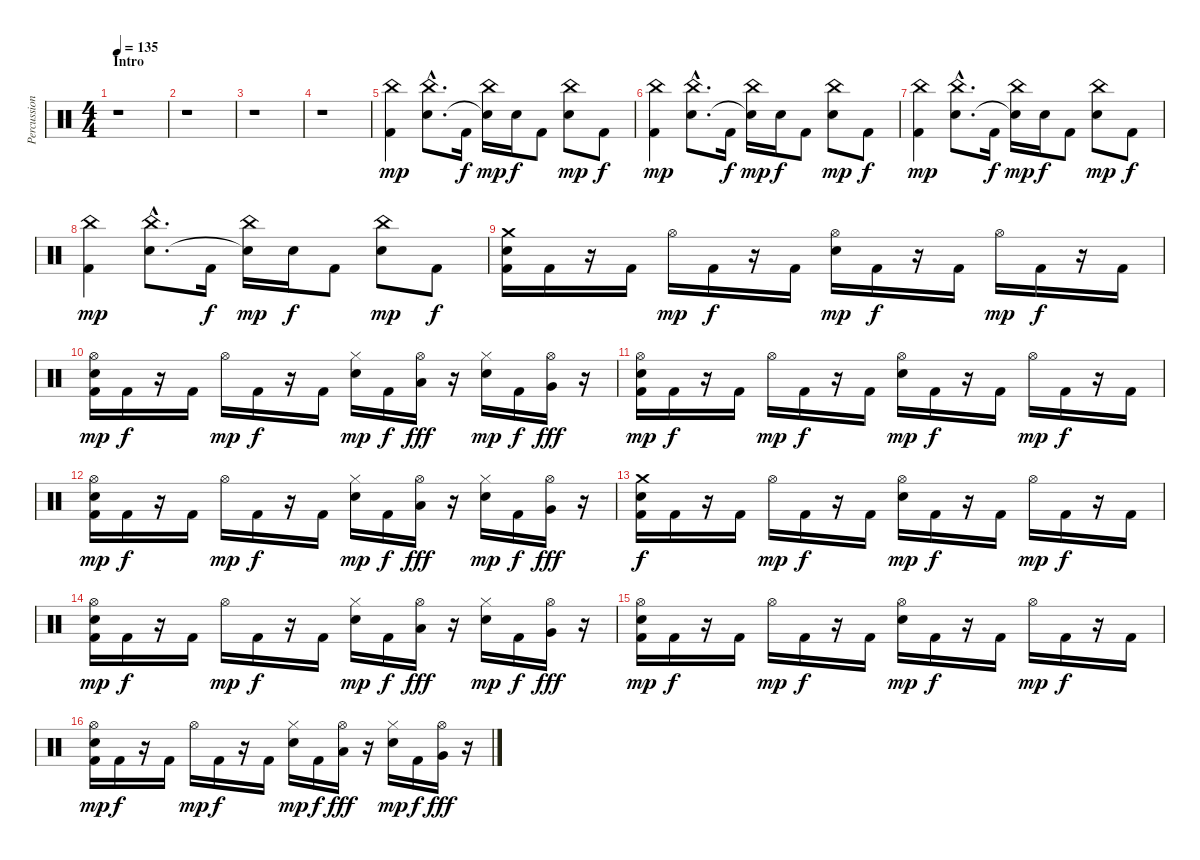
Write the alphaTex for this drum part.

\track ("Percussions" "Percussion") {instrument percussion}
\staff {score}
\articulation defaults
\ts (4 4)
\section ("" "Intro")
\tempo 135
\clef neutral
\ks c
r.1{dy mp} |
r.1 |
r.1 |
r.1 |
("China (hit)" "Kick (hit) 2").4 ("China (hit)"{hac} "Electric Snare (hit)"{hac}).8{d} "Kick (hit) 2".16{dy f} ("China (hit)" "Snare (hit)"{t}).16{dy mp} "Electric Snare (hit)".16{dy f} "Kick (hit) 2".8 ("China (hit)" "Electric Snare (hit)").8{dy mp} "Kick (hit) 2".8{dy f} |
("China (hit)" "Kick (hit) 2").4{dy mp} ("China (hit)"{hac} "Electric Snare (hit)"{hac}).8{d} "Kick (hit) 2".16{dy f} ("China (hit)" "Snare (hit)"{t}).16{dy mp} "Electric Snare (hit)".16{dy f} "Kick (hit) 2".8 ("China (hit)" "Electric Snare (hit)").8{dy mp} "Kick (hit) 2".8{dy f} |
("China (hit)" "Kick (hit) 2").4{dy mp} ("China (hit)"{hac} "Electric Snare (hit)"{hac}).8{d} "Kick (hit) 2".16{dy f} ("China (hit)" "Snare (hit)"{t}).16{dy mp} "Electric Snare (hit)".16{dy f} "Kick (hit) 2".8 ("China (hit)" "Electric Snare (hit)").8{dy mp} "Kick (hit) 2".8{dy f} |
("China (hit)" "Kick (hit) 2").4{dy mp} ("China (hit)"{hac} "Electric Snare (hit)"{hac}).8{d} "Kick (hit) 2".16{dy f} ("China (hit)" "Snare (hit)"{t}).16{dy mp} "Electric Snare (hit)".16{dy f} "Kick (hit) 2".8 ("China (hit)" "Electric Snare (hit)").8{dy mp} "Kick (hit) 2".8{dy f} |
("Crash medium (hit)" "Electric Snare (hit)" "Kick (hit) 2").16 "Kick (hit) 2".16 r.16 "Kick (hit) 2".16 "Hi-Hat (open)".16{dy mp} "Kick (hit) 2".16{dy f} r.16 "Kick (hit) 2".16 ("Hi-Hat (open)" "Electric Snare (hit)").16{dy mp} "Kick (hit) 2".16{dy f} r.16 "Kick (hit) 2".16 "Hi-Hat (open)".16{dy mp} "Kick (hit) 2".16{dy f} r.16 "Kick (hit) 2".16 |
("Hi-Hat (open)" "Electric Snare (hit)" "Kick (hit) 2").16{dy mp} "Kick (hit) 2".16{dy f} r.16 "Kick (hit) 2".16 "Hi-Hat (open)".16{dy mp} "Kick (hit) 2".16{dy f} r.16 "Kick (hit) 2".16 ("Hi-Hat (closed)" "Electric Snare (hit)").16{dy mp} "Kick (hit) 2".16{dy f} ("Hi-Hat (open)" "Low Tom (hit)").16{dy fff} r.16 ("Hi-Hat (closed)" "Electric Snare (hit)").16{dy mp} "Kick (hit) 2".16{dy f} ("Hi-Hat (open)" "Very Low Tom (hit)").16{dy fff} r.16 |
("Hi-Hat (open)" "Electric Snare (hit)" "Kick (hit) 2").16{dy mp} "Kick (hit) 2".16{dy f} r.16 "Kick (hit) 2".16 "Hi-Hat (open)".16{dy mp} "Kick (hit) 2".16{dy f} r.16 "Kick (hit) 2".16 ("Hi-Hat (open)" "Electric Snare (hit)").16{dy mp} "Kick (hit) 2".16{dy f} r.16 "Kick (hit) 2".16 "Hi-Hat (open)".16{dy mp} "Kick (hit) 2".16{dy f} r.16 "Kick (hit) 2".16 |
("Hi-Hat (open)" "Electric Snare (hit)" "Kick (hit) 2").16{dy mp} "Kick (hit) 2".16{dy f} r.16 "Kick (hit) 2".16 "Hi-Hat (open)".16{dy mp} "Kick (hit) 2".16{dy f} r.16 "Kick (hit) 2".16 ("Hi-Hat (closed)" "Electric Snare (hit)").16{dy mp} "Kick (hit) 2".16{dy f} ("Hi-Hat (open)" "Low Tom (hit)").16{dy fff} r.16 ("Hi-Hat (closed)" "Electric Snare (hit)").16{dy mp} "Kick (hit) 2".16{dy f} ("Hi-Hat (open)" "Very Low Tom (hit)").16{dy fff} r.16 |
("Crash medium (hit)" "Electric Snare (hit)" "Kick (hit) 2").16{dy f} "Kick (hit) 2".16 r.16 "Kick (hit) 2".16 "Hi-Hat (open)".16{dy mp} "Kick (hit) 2".16{dy f} r.16 "Kick (hit) 2".16 ("Hi-Hat (open)" "Electric Snare (hit)").16{dy mp} "Kick (hit) 2".16{dy f} r.16 "Kick (hit) 2".16 "Hi-Hat (open)".16{dy mp} "Kick (hit) 2".16{dy f} r.16 "Kick (hit) 2".16 |
("Hi-Hat (open)" "Electric Snare (hit)" "Kick (hit) 2").16{dy mp} "Kick (hit) 2".16{dy f} r.16 "Kick (hit) 2".16 "Hi-Hat (open)".16{dy mp} "Kick (hit) 2".16{dy f} r.16 "Kick (hit) 2".16 ("Hi-Hat (closed)" "Electric Snare (hit)").16{dy mp} "Kick (hit) 2".16{dy f} ("Hi-Hat (open)" "Low Tom (hit)").16{dy fff} r.16 ("Hi-Hat (closed)" "Electric Snare (hit)").16{dy mp} "Kick (hit) 2".16{dy f} ("Hi-Hat (open)" "Very Low Tom (hit)").16{dy fff} r.16 |
("Hi-Hat (open)" "Electric Snare (hit)" "Kick (hit) 2").16{dy mp} "Kick (hit) 2".16{dy f} r.16 "Kick (hit) 2".16 "Hi-Hat (open)".16{dy mp} "Kick (hit) 2".16{dy f} r.16 "Kick (hit) 2".16 ("Hi-Hat (open)" "Electric Snare (hit)").16{dy mp} "Kick (hit) 2".16{dy f} r.16 "Kick (hit) 2".16 "Hi-Hat (open)".16{dy mp} "Kick (hit) 2".16{dy f} r.16 "Kick (hit) 2".16 |
("Hi-Hat (open)" "Electric Snare (hit)" "Kick (hit) 2").16{dy mp} "Kick (hit) 2".16{dy f} r.16 "Kick (hit) 2".16 "Hi-Hat (open)".16{dy mp} "Kick (hit) 2".16{dy f} r.16 "Kick (hit) 2".16 ("Hi-Hat (closed)" "Electric Snare (hit)").16{dy mp} "Kick (hit) 2".16{dy f} ("Hi-Hat (open)" "Low Tom (hit)").16{dy fff} r.16 ("Hi-Hat (closed)" "Electric Snare (hit)").16{dy mp} "Kick (hit) 2".16{dy f} ("Hi-Hat (open)" "Very Low Tom (hit)").16{dy fff} r.16
